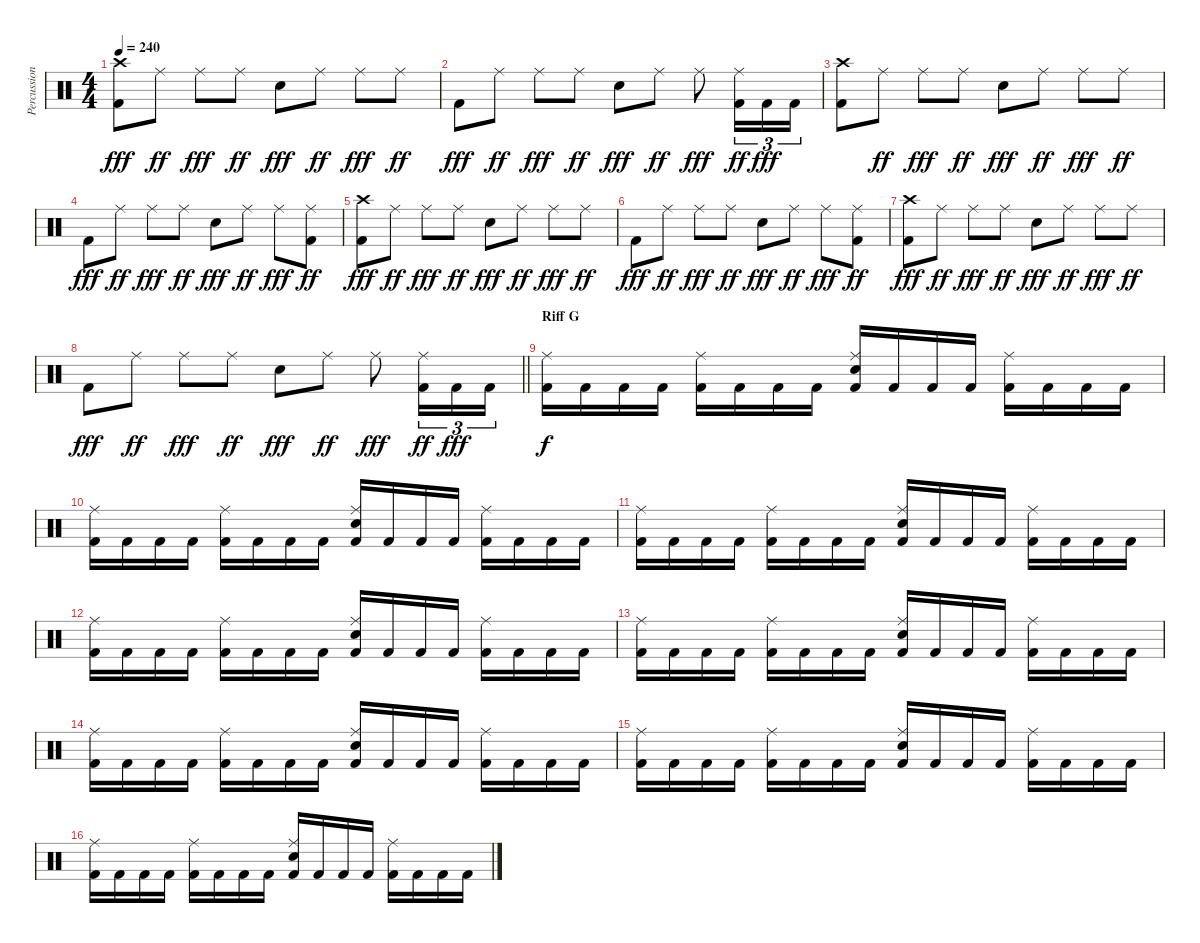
\track ("Percussion" "Percussion") {instrument percussion}
\staff {score}
\articulation defaults
\ts (4 4)
\tempo 240
\clef neutral
\ks c
("Kick (hit) 2" "Crash high (hit)").8{dy fff} "Ride (middle)".8{dy ff} "Ride (middle)".8{dy fff} "Ride (middle)".8{dy ff} "Snare (hit) 2".8{dy fff} "Ride (middle)".8{dy ff} "Ride (middle)".8{dy fff} "Ride (middle)".8{dy ff} |
"Kick (hit) 2".8{dy fff} "Ride (middle)".8{dy ff} "Ride (middle)".8{dy fff} "Ride (middle)".8{dy ff} "Snare (hit) 2".8{dy fff} "Ride (middle)".8{dy ff} "Ride (middle)".8{dy fff} ("Kick (hit) 2" "Ride (middle)").16{tu (3 2) dy ff} "Kick (hit) 2".16{tu (3 2) dy fff} "Kick (hit) 2".16{tu (3 2)} |
("Kick (hit) 2" "Crash high (hit)").8 "Ride (middle)".8{dy ff} "Ride (middle)".8{dy fff} "Ride (middle)".8{dy ff} "Snare (hit) 2".8{dy fff} "Ride (middle)".8{dy ff} "Ride (middle)".8{dy fff} "Ride (middle)".8{dy ff} |
"Kick (hit) 2".8{dy fff} "Ride (middle)".8{dy ff} "Ride (middle)".8{dy fff} "Ride (middle)".8{dy ff} "Snare (hit) 2".8{dy fff} "Ride (middle)".8{dy ff} "Ride (middle)".8{dy fff} ("Kick (hit) 2" "Ride (middle)").8{dy ff} |
("Kick (hit) 2" "Crash high (hit)").8{dy fff} "Ride (middle)".8{dy ff} "Ride (middle)".8{dy fff} "Ride (middle)".8{dy ff} "Snare (hit) 2".8{dy fff} "Ride (middle)".8{dy ff} "Ride (middle)".8{dy fff} "Ride (middle)".8{dy ff} |
"Kick (hit) 2".8{dy fff} "Ride (middle)".8{dy ff} "Ride (middle)".8{dy fff} "Ride (middle)".8{dy ff} "Snare (hit) 2".8{dy fff} "Ride (middle)".8{dy ff} "Ride (middle)".8{dy fff} ("Kick (hit) 2" "Ride (middle)").8{dy ff} |
("Kick (hit) 2" "Crash high (hit)").8{dy fff} "Ride (middle)".8{dy ff} "Ride (middle)".8{dy fff} "Ride (middle)".8{dy ff} "Snare (hit) 2".8{dy fff} "Ride (middle)".8{dy ff} "Ride (middle)".8{dy fff} "Ride (middle)".8{dy ff} |
\barLineRight lightlight "Kick (hit) 2".8{dy fff} "Ride (middle)".8{dy ff} "Ride (middle)".8{dy fff} "Ride (middle)".8{dy ff} "Snare (hit) 2".8{dy fff} "Ride (middle)".8{dy ff} "Ride (middle)".8{dy fff}
("Kick (hit) 2" "Ride (middle)").16{tu (3 2) dy ff} "Kick (hit) 2".16{tu (3 2) dy fff} "Kick (hit) 2".16{tu (3 2)} |
\section ("" "Riff G")
("Kick (hit) 2" "Ride (middle)").16{dy f} "Kick (hit) 2".16 "Kick (hit) 2".16 "Kick (hit) 2".16 ("Kick (hit) 2" "Ride (middle)").16 "Kick (hit) 2".16 "Kick (hit) 2".16 "Kick (hit) 2".16 ("Kick (hit) 2" "Ride (middle)" "Snare (hit) 2").16 "Kick (hit) 2".16 "Kick (hit) 2".16 "Kick (hit) 2".16 ("Kick (hit) 2" "Ride (middle)").16 "Kick (hit) 2".16 "Kick (hit) 2".16 "Kick (hit) 2".16 |
("Kick (hit) 2" "Ride (middle)").16 "Kick (hit) 2".16 "Kick (hit) 2".16 "Kick (hit) 2".16 ("Kick (hit) 2" "Ride (middle)").16 "Kick (hit) 2".16 "Kick (hit) 2".16 "Kick (hit) 2".16 ("Kick (hit) 2" "Ride (middle)" "Snare (hit) 2").16 "Kick (hit) 2".16 "Kick (hit) 2".16 "Kick (hit) 2".16 ("Kick (hit) 2" "Ride (middle)").16 "Kick (hit) 2".16 "Kick (hit) 2".16 "Kick (hit) 2".16 |
("Kick (hit) 2" "Ride (middle)").16 "Kick (hit) 2".16 "Kick (hit) 2".16 "Kick (hit) 2".16 ("Kick (hit) 2" "Ride (middle)").16 "Kick (hit) 2".16 "Kick (hit) 2".16 "Kick (hit) 2".16 ("Kick (hit) 2" "Ride (middle)" "Snare (hit) 2").16 "Kick (hit) 2".16 "Kick (hit) 2".16 "Kick (hit) 2".16 ("Kick (hit) 2" "Ride (middle)").16 "Kick (hit) 2".16 "Kick (hit) 2".16 "Kick (hit) 2".16 |
("Kick (hit) 2" "Ride (middle)").16 "Kick (hit) 2".16 "Kick (hit) 2".16 "Kick (hit) 2".16 ("Kick (hit) 2" "Ride (middle)").16 "Kick (hit) 2".16 "Kick (hit) 2".16 "Kick (hit) 2".16 ("Kick (hit) 2" "Ride (middle)" "Snare (hit) 2").16 "Kick (hit) 2".16 "Kick (hit) 2".16 "Kick (hit) 2".16 ("Kick (hit) 2" "Ride (middle)").16 "Kick (hit) 2".16 "Kick (hit) 2".16 "Kick (hit) 2".16 |
("Kick (hit) 2" "Ride (middle)").16 "Kick (hit) 2".16 "Kick (hit) 2".16 "Kick (hit) 2".16 ("Kick (hit) 2" "Ride (middle)").16 "Kick (hit) 2".16 "Kick (hit) 2".16 "Kick (hit) 2".16 ("Kick (hit) 2" "Ride (middle)" "Snare (hit) 2").16 "Kick (hit) 2".16 "Kick (hit) 2".16 "Kick (hit) 2".16 ("Kick (hit) 2" "Ride (middle)").16 "Kick (hit) 2".16 "Kick (hit) 2".16 "Kick (hit) 2".16 |
("Kick (hit) 2" "Ride (middle)").16 "Kick (hit) 2".16 "Kick (hit) 2".16 "Kick (hit) 2".16 ("Kick (hit) 2" "Ride (middle)").16 "Kick (hit) 2".16 "Kick (hit) 2".16 "Kick (hit) 2".16 ("Kick (hit) 2" "Ride (middle)" "Snare (hit) 2").16 "Kick (hit) 2".16 "Kick (hit) 2".16 "Kick (hit) 2".16 ("Kick (hit) 2" "Ride (middle)").16 "Kick (hit) 2".16 "Kick (hit) 2".16 "Kick (hit) 2".16 |
("Kick (hit) 2" "Ride (middle)").16 "Kick (hit) 2".16 "Kick (hit) 2".16 "Kick (hit) 2".16 ("Kick (hit) 2" "Ride (middle)").16 "Kick (hit) 2".16 "Kick (hit) 2".16 "Kick (hit) 2".16 ("Kick (hit) 2" "Ride (middle)" "Snare (hit) 2").16 "Kick (hit) 2".16 "Kick (hit) 2".16 "Kick (hit) 2".16 ("Kick (hit) 2" "Ride (middle)").16 "Kick (hit) 2".16 "Kick (hit) 2".16 "Kick (hit) 2".16 |
("Kick (hit) 2" "Ride (middle)").16 "Kick (hit) 2".16 "Kick (hit) 2".16 "Kick (hit) 2".16 ("Kick (hit) 2" "Ride (middle)").16 "Kick (hit) 2".16 "Kick (hit) 2".16 "Kick (hit) 2".16 ("Kick (hit) 2" "Ride (middle)" "Snare (hit) 2").16 "Kick (hit) 2".16 "Kick (hit) 2".16 "Kick (hit) 2".16 ("Kick (hit) 2" "Ride (middle)").16 "Kick (hit) 2".16 "Kick (hit) 2".16 "Kick (hit) 2".16
